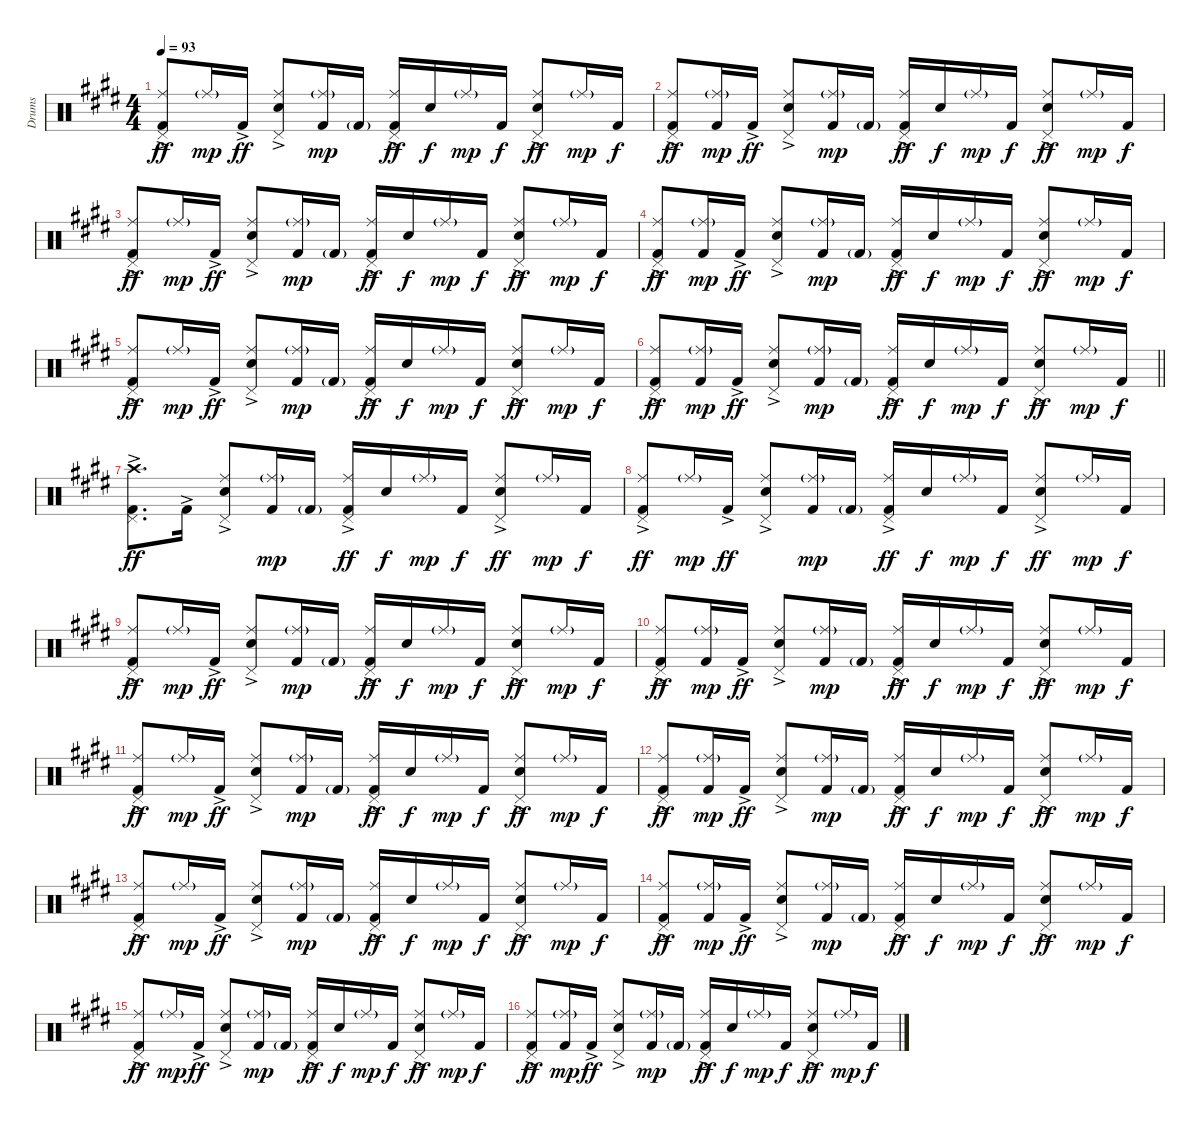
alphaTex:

\track ("Drums" "Drums") {instrument percussion}
\staff {score}
\articulation defaults
\ts (4 4)
\tempo 93
\clef neutral
\ks e
("Pedal Hi-Hat (hit)" "Ride (middle)" "Kick (hit) 2"{ac}).8{dy ff} "Ride (middle)"{g}.16{dy mp} "Kick (hit) 2"{ac}.16{dy ff} ("Pedal Hi-Hat (hit)" "Ride (middle)" "Snare (hit) 2"{ac}).8 ("Ride (middle)"{g} "Kick (hit) 2").16{dy mp} "Kick (hit) 2"{g}.16 ("Pedal Hi-Hat (hit)" "Ride (middle)" "Kick (hit) 2"{ac}).16{dy ff} "Snare (hit) 2".16{dy f} "Ride (middle)"{g}.16{dy mp} "Kick (hit) 2".16{dy f} ("Pedal Hi-Hat (hit)" "Ride (middle)" "Snare (hit) 2"{ac}).8{dy ff} "Ride (middle)"{g}.16{dy mp} "Kick (hit) 2".16{dy f} |
("Pedal Hi-Hat (hit)" "Ride (middle)" "Kick (hit) 2"{ac}).8{dy ff} ("Ride (middle)"{g} "Kick (hit) 2").16{dy mp} "Kick (hit) 2"{ac}.16{dy ff} ("Pedal Hi-Hat (hit)" "Ride (middle)" "Snare (hit) 2"{ac}).8 ("Ride (middle)"{g} "Kick (hit) 2").16{dy mp} "Kick (hit) 2"{g}.16 ("Pedal Hi-Hat (hit)" "Ride (middle)" "Kick (hit) 2"{ac}).16{dy ff} "Snare (hit) 2".16{dy f} "Ride (middle)"{g}.16{dy mp} "Kick (hit) 2".16{dy f} ("Pedal Hi-Hat (hit)" "Ride (middle)" "Snare (hit) 2"{ac}).8{dy ff} "Ride (middle)"{g}.16{dy mp} "Kick (hit) 2".16{dy f} |
("Pedal Hi-Hat (hit)" "Ride (middle)" "Kick (hit) 2"{ac}).8{dy ff} "Ride (middle)"{g}.16{dy mp} "Kick (hit) 2"{ac}.16{dy ff} ("Pedal Hi-Hat (hit)" "Ride (middle)" "Snare (hit) 2"{ac}).8 ("Ride (middle)"{g} "Kick (hit) 2").16{dy mp} "Kick (hit) 2"{g}.16 ("Pedal Hi-Hat (hit)" "Ride (middle)" "Kick (hit) 2"{ac}).16{dy ff} "Snare (hit) 2".16{dy f} "Ride (middle)"{g}.16{dy mp} "Kick (hit) 2".16{dy f} ("Pedal Hi-Hat (hit)" "Ride (middle)" "Snare (hit) 2"{ac}).8{dy ff} "Ride (middle)"{g}.16{dy mp} "Kick (hit) 2".16{dy f} |
("Pedal Hi-Hat (hit)" "Ride (middle)" "Kick (hit) 2"{ac}).8{dy ff} ("Ride (middle)"{g} "Kick (hit) 2").16{dy mp} "Kick (hit) 2"{ac}.16{dy ff} ("Pedal Hi-Hat (hit)" "Ride (middle)" "Snare (hit) 2"{ac}).8 ("Ride (middle)"{g} "Kick (hit) 2").16{dy mp} "Kick (hit) 2"{g}.16 ("Pedal Hi-Hat (hit)" "Ride (middle)" "Kick (hit) 2"{ac}).16{dy ff} "Snare (hit) 2".16{dy f} "Ride (middle)"{g}.16{dy mp} "Kick (hit) 2".16{dy f} ("Pedal Hi-Hat (hit)" "Ride (middle)" "Snare (hit) 2"{ac}).8{dy ff} "Ride (middle)"{g}.16{dy mp} "Kick (hit) 2".16{dy f} |
("Pedal Hi-Hat (hit)" "Ride (middle)" "Kick (hit) 2"{ac}).8{dy ff} "Ride (middle)"{g}.16{dy mp} "Kick (hit) 2"{ac}.16{dy ff} ("Pedal Hi-Hat (hit)" "Ride (middle)" "Snare (hit) 2"{ac}).8 ("Ride (middle)"{g} "Kick (hit) 2").16{dy mp} "Kick (hit) 2"{g}.16 ("Pedal Hi-Hat (hit)" "Ride (middle)" "Kick (hit) 2"{ac}).16{dy ff} "Snare (hit) 2".16{dy f} "Ride (middle)"{g}.16{dy mp} "Kick (hit) 2".16{dy f} ("Pedal Hi-Hat (hit)" "Ride (middle)" "Snare (hit) 2"{ac}).8{dy ff} "Ride (middle)"{g}.16{dy mp} "Kick (hit) 2".16{dy f} |
\barLineRight lightlight
("Pedal Hi-Hat (hit)" "Ride (middle)" "Kick (hit) 2"{ac}).8{dy ff} ("Ride (middle)"{g} "Kick (hit) 2").16{dy mp} "Kick (hit) 2"{ac}.16{dy ff} ("Pedal Hi-Hat (hit)" "Ride (middle)" "Snare (hit) 2"{ac}).8 ("Ride (middle)"{g} "Kick (hit) 2").16{dy mp} "Kick (hit) 2"{g}.16 ("Pedal Hi-Hat (hit)" "Ride (middle)" "Kick (hit) 2"{ac}).16{dy ff} "Snare (hit) 2".16{dy f} "Ride (middle)"{g}.16{dy mp} "Kick (hit) 2".16{dy f} ("Pedal Hi-Hat (hit)" "Ride (middle)" "Snare (hit) 2"{ac}).8{dy ff} "Ride (middle)"{g}.16{dy mp} "Kick (hit) 2".16{dy f} |
("Pedal Hi-Hat (hit)" "Crash high (hit)" "Kick (hit) 2"{ac}).8{d dy ff} "Kick (hit) 2"{ac}.16 ("Pedal Hi-Hat (hit)" "Ride (middle)" "Snare (hit) 2"{ac}).8 ("Ride (middle)"{g} "Kick (hit) 2").16{dy mp} "Kick (hit) 2"{g}.16 ("Pedal Hi-Hat (hit)" "Ride (middle)" "Kick (hit) 2"{ac}).16{dy ff} "Snare (hit) 2".16{dy f} "Ride (middle)"{g}.16{dy mp} "Kick (hit) 2".16{dy f} ("Pedal Hi-Hat (hit)" "Ride (middle)" "Snare (hit) 2"{ac}).8{dy ff} "Ride (middle)"{g}.16{dy mp} "Kick (hit) 2".16{dy f} |
("Pedal Hi-Hat (hit)" "Ride (middle)" "Kick (hit) 2"{ac}).8{dy ff} "Ride (middle)"{g}.16{dy mp} "Kick (hit) 2"{ac}.16{dy ff} ("Pedal Hi-Hat (hit)" "Ride (middle)" "Snare (hit) 2"{ac}).8 ("Ride (middle)"{g} "Kick (hit) 2").16{dy mp} "Kick (hit) 2"{g}.16 ("Pedal Hi-Hat (hit)" "Ride (middle)" "Kick (hit) 2"{ac}).16{dy ff} "Snare (hit) 2".16{dy f} "Ride (middle)"{g}.16{dy mp} "Kick (hit) 2".16{dy f} ("Pedal Hi-Hat (hit)" "Ride (middle)" "Snare (hit) 2"{ac}).8{dy ff} "Ride (middle)"{g}.16{dy mp} "Kick (hit) 2".16{dy f} |
("Pedal Hi-Hat (hit)" "Ride (middle)" "Kick (hit) 2"{ac}).8{dy ff} "Ride (middle)"{g}.16{dy mp} "Kick (hit) 2"{ac}.16{dy ff} ("Pedal Hi-Hat (hit)" "Ride (middle)" "Snare (hit) 2"{ac}).8 ("Ride (middle)"{g} "Kick (hit) 2").16{dy mp} "Kick (hit) 2"{g}.16 ("Pedal Hi-Hat (hit)" "Ride (middle)" "Kick (hit) 2"{ac}).16{dy ff} "Snare (hit) 2".16{dy f} "Ride (middle)"{g}.16{dy mp} "Kick (hit) 2".16{dy f} ("Pedal Hi-Hat (hit)" "Ride (middle)" "Snare (hit) 2"{ac}).8{dy ff} "Ride (middle)"{g}.16{dy mp} "Kick (hit) 2".16{dy f} |
("Pedal Hi-Hat (hit)" "Ride (middle)" "Kick (hit) 2"{ac}).8{dy ff} ("Ride (middle)"{g} "Kick (hit) 2").16{dy mp} "Kick (hit) 2"{ac}.16{dy ff} ("Pedal Hi-Hat (hit)" "Ride (middle)" "Snare (hit) 2"{ac}).8 ("Ride (middle)"{g} "Kick (hit) 2").16{dy mp} "Kick (hit) 2"{g}.16 ("Pedal Hi-Hat (hit)" "Ride (middle)" "Kick (hit) 2"{ac}).16{dy ff} "Snare (hit) 2".16{dy f} "Ride (middle)"{g}.16{dy mp} "Kick (hit) 2".16{dy f} ("Pedal Hi-Hat (hit)" "Ride (middle)" "Snare (hit) 2"{ac}).8{dy ff} "Ride (middle)"{g}.16{dy mp} "Kick (hit) 2".16{dy f} |
("Pedal Hi-Hat (hit)" "Ride (middle)" "Kick (hit) 2"{ac}).8{dy ff} "Ride (middle)"{g}.16{dy mp} "Kick (hit) 2"{ac}.16{dy ff} ("Pedal Hi-Hat (hit)" "Ride (middle)" "Snare (hit) 2"{ac}).8 ("Ride (middle)"{g} "Kick (hit) 2").16{dy mp} "Kick (hit) 2"{g}.16 ("Pedal Hi-Hat (hit)" "Ride (middle)" "Kick (hit) 2"{ac}).16{dy ff} "Snare (hit) 2".16{dy f} "Ride (middle)"{g}.16{dy mp} "Kick (hit) 2".16{dy f} ("Pedal Hi-Hat (hit)" "Ride (middle)" "Snare (hit) 2"{ac}).8{dy ff} "Ride (middle)"{g}.16{dy mp} "Kick (hit) 2".16{dy f} |
("Pedal Hi-Hat (hit)" "Ride (middle)" "Kick (hit) 2"{ac}).8{dy ff} ("Ride (middle)"{g} "Kick (hit) 2").16{dy mp} "Kick (hit) 2"{ac}.16{dy ff} ("Pedal Hi-Hat (hit)" "Ride (middle)" "Snare (hit) 2"{ac}).8 ("Ride (middle)"{g} "Kick (hit) 2").16{dy mp} "Kick (hit) 2"{g}.16 ("Pedal Hi-Hat (hit)" "Ride (middle)" "Kick (hit) 2"{ac}).16{dy ff} "Snare (hit) 2".16{dy f} "Ride (middle)"{g}.16{dy mp} "Kick (hit) 2".16{dy f} ("Pedal Hi-Hat (hit)" "Ride (middle)" "Snare (hit) 2"{ac}).8{dy ff} "Ride (middle)"{g}.16{dy mp} "Kick (hit) 2".16{dy f} |
("Pedal Hi-Hat (hit)" "Ride (middle)" "Kick (hit) 2"{ac}).8{dy ff} "Ride (middle)"{g}.16{dy mp} "Kick (hit) 2"{ac}.16{dy ff} ("Pedal Hi-Hat (hit)" "Ride (middle)" "Snare (hit) 2"{ac}).8 ("Ride (middle)"{g} "Kick (hit) 2").16{dy mp} "Kick (hit) 2"{g}.16 ("Pedal Hi-Hat (hit)" "Ride (middle)" "Kick (hit) 2"{ac}).16{dy ff} "Snare (hit) 2".16{dy f} "Ride (middle)"{g}.16{dy mp} "Kick (hit) 2".16{dy f} ("Pedal Hi-Hat (hit)" "Ride (middle)" "Snare (hit) 2"{ac}).8{dy ff} "Ride (middle)"{g}.16{dy mp} "Kick (hit) 2".16{dy f} |
("Pedal Hi-Hat (hit)" "Ride (middle)" "Kick (hit) 2"{ac}).8{dy ff} ("Ride (middle)"{g} "Kick (hit) 2").16{dy mp} "Kick (hit) 2"{ac}.16{dy ff} ("Pedal Hi-Hat (hit)" "Ride (middle)" "Snare (hit) 2"{ac}).8 ("Ride (middle)"{g} "Kick (hit) 2").16{dy mp} "Kick (hit) 2"{g}.16 ("Pedal Hi-Hat (hit)" "Ride (middle)" "Kick (hit) 2"{ac}).16{dy ff} "Snare (hit) 2".16{dy f} "Ride (middle)"{g}.16{dy mp} "Kick (hit) 2".16{dy f} ("Pedal Hi-Hat (hit)" "Ride (middle)" "Snare (hit) 2"{ac}).8{dy ff} "Ride (middle)"{g}.16{dy mp} "Kick (hit) 2".16{dy f} |
("Pedal Hi-Hat (hit)" "Ride (middle)" "Kick (hit) 2"{ac}).8{dy ff} "Ride (middle)"{g}.16{dy mp} "Kick (hit) 2"{ac}.16{dy ff} ("Pedal Hi-Hat (hit)" "Ride (middle)" "Snare (hit) 2"{ac}).8 ("Ride (middle)"{g} "Kick (hit) 2").16{dy mp} "Kick (hit) 2"{g}.16 ("Pedal Hi-Hat (hit)" "Ride (middle)" "Kick (hit) 2"{ac}).16{dy ff} "Snare (hit) 2".16{dy f} "Ride (middle)"{g}.16{dy mp} "Kick (hit) 2".16{dy f} ("Pedal Hi-Hat (hit)" "Ride (middle)" "Snare (hit) 2"{ac}).8{dy ff} "Ride (middle)"{g}.16{dy mp} "Kick (hit) 2".16{dy f} |
("Pedal Hi-Hat (hit)" "Ride (middle)" "Kick (hit) 2"{ac}).8{dy ff} ("Ride (middle)"{g} "Kick (hit) 2").16{dy mp} "Kick (hit) 2"{ac}.16{dy ff} ("Pedal Hi-Hat (hit)" "Ride (middle)" "Snare (hit) 2"{ac}).8 ("Ride (middle)"{g} "Kick (hit) 2").16{dy mp} "Kick (hit) 2"{g}.16 ("Pedal Hi-Hat (hit)" "Ride (middle)" "Kick (hit) 2"{ac}).16{dy ff} "Snare (hit) 2".16{dy f} "Ride (middle)"{g}.16{dy mp} "Kick (hit) 2".16{dy f} ("Pedal Hi-Hat (hit)" "Ride (middle)" "Snare (hit) 2"{ac}).8{dy ff} "Ride (middle)"{g}.16{dy mp} "Kick (hit) 2".16{dy f}
